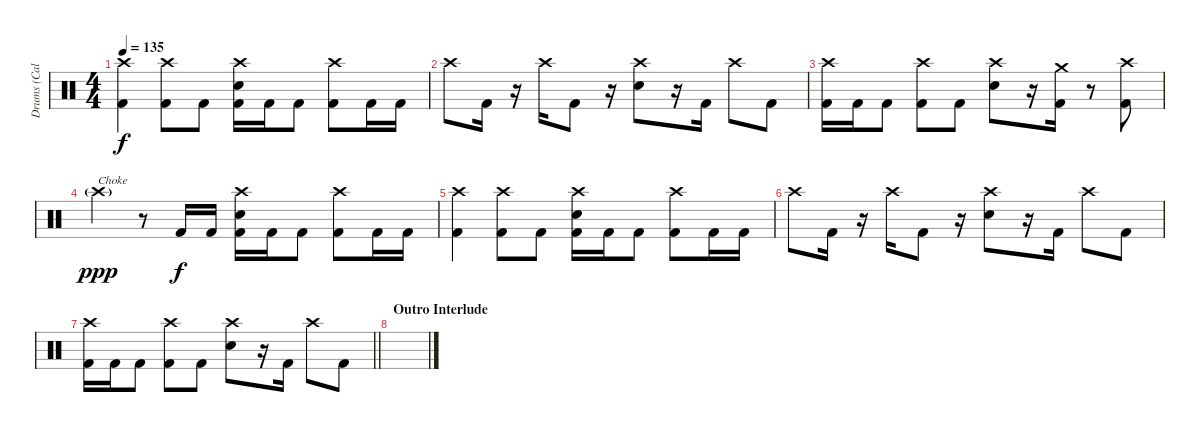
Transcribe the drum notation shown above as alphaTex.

\track ("Drums (Caleb Burton)" "Drums (Cal") {instrument percussion}
\staff {score}
\articulation defaults
\ts (4 4)
\tempo 135
\clef neutral
\ks c
("Crash high (hit)" "Kick (hit) 2").4{dy f} ("Crash high (hit)" "Kick (hit) 2").8 "Kick (hit) 2".8 ("Crash high (hit)" "Electric Snare (hit)" "Kick (hit) 2").16 "Kick (hit) 2".16 "Kick (hit) 2".8 ("Crash high (hit)" "Kick (hit) 2").8 "Kick (hit) 2".16 "Kick (hit) 2".16 |
"Crash high (hit)".8 "Kick (hit) 2".16 r.16 "Crash high (hit)".16 "Kick (hit) 2".8 r.16 ("Crash high (hit)" "Electric Snare (hit)").8 r.16 "Kick (hit) 2".16 "Crash high (hit)".8 "Kick (hit) 2".8 |
("Crash high (hit)" "Kick (hit) 2").16 "Kick (hit) 2".16 "Kick (hit) 2".8 ("Crash high (hit)" "Kick (hit) 2").8 "Kick (hit) 2".8 ("Crash high (hit)" "Electric Snare (hit)").8 r.16 ("Crash medium (hit)" "Kick (hit) 2").16 r.8 ("Crash high (hit)" "Kick (hit) 2").8 |
"Crash high (hit)"{g}.4{txt "Choke" dy ppp} r.8 "Kick (hit) 2".16{dy f} "Kick (hit) 2".16 ("Crash high (hit)" "Electric Snare (hit)" "Kick (hit) 2").16 "Kick (hit) 2".16 "Kick (hit) 2".8 ("Crash high (hit)" "Kick (hit) 2").8 "Kick (hit) 2".16 "Kick (hit) 2".16 |
("Crash high (hit)" "Kick (hit) 2").4 ("Crash high (hit)" "Kick (hit) 2").8 "Kick (hit) 2".8 ("Crash high (hit)" "Electric Snare (hit)" "Kick (hit) 2").16 "Kick (hit) 2".16 "Kick (hit) 2".8 ("Crash high (hit)" "Kick (hit) 2").8 "Kick (hit) 2".16 "Kick (hit) 2".16 |
"Crash high (hit)".8 "Kick (hit) 2".16 r.16 "Crash high (hit)".16 "Kick (hit) 2".8 r.16 ("Crash high (hit)" "Electric Snare (hit)").8 r.16 "Kick (hit) 2".16 "Crash high (hit)".8 "Kick (hit) 2".8 |
\barLineRight lightlight
("Crash high (hit)" "Kick (hit) 2").16 "Kick (hit) 2".16 "Kick (hit) 2".8 ("Crash high (hit)" "Kick (hit) 2").8 "Kick (hit) 2".8 ("Crash high (hit)" "Electric Snare (hit)").8 r.16 "Kick (hit) 2".16 "Crash high (hit)".8 "Kick (hit) 2".8 |
\section ("" "Outro Interlude")
